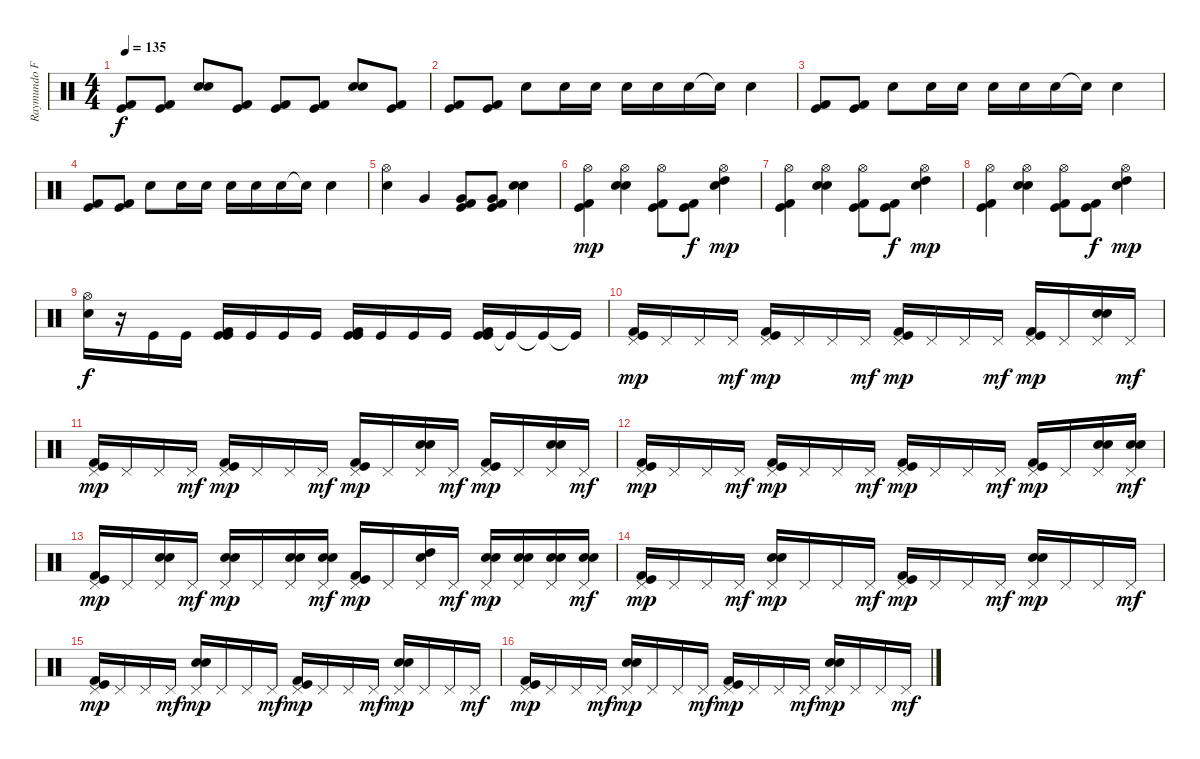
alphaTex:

\track ("Raymundo Fajardo" "Raymundo F") {instrument percussion}
\staff {score}
\articulation defaults
\ts (4 4)
\tempo 135
\clef neutral
\ks c
("Kick (hit) 2" "Kick (hit)").8{dy f} ("Kick (hit) 2" "Kick (hit)").8 ("Electric Snare (hit)" "Snare (hit) 2").8 ("Kick (hit) 2" "Kick (hit)").8 ("Kick (hit) 2" "Kick (hit)").8 ("Kick (hit) 2" "Kick (hit)").8 ("Electric Snare (hit)" "Snare (hit) 2").8 ("Kick (hit) 2" "Kick (hit)").8 |
("Kick (hit)" "Kick (hit) 2").8 ("Kick (hit)" "Kick (hit) 2").8 "Electric Snare (hit)".8 "Electric Snare (hit)".16 "Electric Snare (hit)".16 "Electric Snare (hit)".16 "Electric Snare (hit)".16 "Electric Snare (hit)".16 "Electric Snare (hit)"{t}.16 "Electric Snare (hit)".4 |
("Kick (hit)" "Kick (hit) 2").8 ("Kick (hit)" "Kick (hit) 2").8 "Electric Snare (hit)".8 "Electric Snare (hit)".16 "Electric Snare (hit)".16 "Electric Snare (hit)".16 "Electric Snare (hit)".16 "Electric Snare (hit)".16 "Electric Snare (hit)"{t}.16 "Electric Snare (hit)".4 |
("Kick (hit)" "Kick (hit) 2").8 ("Kick (hit)" "Kick (hit) 2").8 "Electric Snare (hit)".8 "Electric Snare (hit)".16 "Electric Snare (hit)".16 "Electric Snare (hit)".16 "Electric Snare (hit)".16 "Electric Snare (hit)".16 "Electric Snare (hit)"{t}.16 "Electric Snare (hit)".4 |
("Electric Snare (hit)" "Hi-Hat (open)").4 "Very Low Tom (hit)".4 ("Very Low Tom (hit)" "Kick (hit)" "Kick (hit) 2").8 ("Very Low Tom (hit)" "Kick (hit)" "Kick (hit) 2").8 ("Electric Snare (hit)" "Snare (hit) 2").4 |
("Kick (hit)" "Kick (hit) 2" "Hi-Hat (open)").4{dy mp} ("Electric Snare (hit)" "Snare (hit) 2" "Hi-Hat (open)").4 ("Kick (hit) 2" "Kick (hit)" "Hi-Hat (open)").8 ("Kick (hit) 2" "Kick (hit)").8{dy f} ("Electric Snare (hit)" "High Tom (hit)" "Hi-Hat (open)").4{dy mp} |
("Kick (hit)" "Kick (hit) 2" "Hi-Hat (open)").4 ("Electric Snare (hit)" "Snare (hit) 2" "Hi-Hat (open)").4 ("Kick (hit) 2" "Kick (hit)" "Hi-Hat (open)").8 ("Kick (hit) 2" "Kick (hit)").8{dy f} ("Electric Snare (hit)" "High Tom (hit)" "Hi-Hat (open)").4{dy mp} |
("Kick (hit)" "Kick (hit) 2" "Hi-Hat (open)").4 ("Electric Snare (hit)" "Snare (hit) 2" "Hi-Hat (open)").4 ("Kick (hit) 2" "Kick (hit)" "Hi-Hat (open)").8 ("Kick (hit) 2" "Kick (hit)").8{dy f} ("Electric Snare (hit)" "High Tom (hit)" "Hi-Hat (open)").4{dy mp} |
("Hi-Hat (open)" "Electric Snare (hit)").16{dy f} r.16 "Kick (hit)".16 "Kick (hit)".16 ("Kick (hit)" "Kick (hit) 2" "Kick (hit)").16 "Kick (hit)".16 "Kick (hit)".16 "Kick (hit)".16 ("Kick (hit)" "Kick (hit) 2" "Kick (hit)").16 "Kick (hit)".16 "Kick (hit)".16 "Kick (hit)".16 ("Kick (hit)" "Kick (hit) 2" "Kick (hit)").16 "Kick (hit)"{t}.16 "Kick (hit)"{t}.16 "Kick (hit)"{t}.16 |
("Kick (hit) 2" "Kick (hit)" "Pedal Hi-Hat (hit)").16{dy mp} "Pedal Hi-Hat (hit)".16 "Pedal Hi-Hat (hit)".16 "Pedal Hi-Hat (hit)".16{dy mf} ("Kick (hit) 2" "Kick (hit)" "Pedal Hi-Hat (hit)").16{dy mp} "Pedal Hi-Hat (hit)".16 "Pedal Hi-Hat (hit)".16 "Pedal Hi-Hat (hit)".16{dy mf} ("Kick (hit) 2" "Kick (hit)" "Pedal Hi-Hat (hit)").16{dy mp} "Pedal Hi-Hat (hit)".16 "Pedal Hi-Hat (hit)".16 "Pedal Hi-Hat (hit)".16{dy mf} ("Kick (hit) 2" "Kick (hit)" "Pedal Hi-Hat (hit)").16{dy mp} "Pedal Hi-Hat (hit)".16 ("Electric Snare (hit)" "Snare (hit) 2" "Pedal Hi-Hat (hit)").16 "Pedal Hi-Hat (hit)".16{dy mf} |
("Kick (hit) 2" "Kick (hit)" "Pedal Hi-Hat (hit)").16{dy mp} "Pedal Hi-Hat (hit)".16 "Pedal Hi-Hat (hit)".16 "Pedal Hi-Hat (hit)".16{dy mf} ("Kick (hit) 2" "Kick (hit)" "Pedal Hi-Hat (hit)").16{dy mp} "Pedal Hi-Hat (hit)".16 "Pedal Hi-Hat (hit)".16 "Pedal Hi-Hat (hit)".16{dy mf} ("Kick (hit) 2" "Kick (hit)" "Pedal Hi-Hat (hit)").16{dy mp} "Pedal Hi-Hat (hit)".16 ("Electric Snare (hit)" "Snare (hit) 2" "Pedal Hi-Hat (hit)").16 "Pedal Hi-Hat (hit)".16{dy mf} ("Kick (hit) 2" "Kick (hit)" "Pedal Hi-Hat (hit)").16{dy mp} "Pedal Hi-Hat (hit)".16 ("Electric Snare (hit)" "Snare (hit) 2" "Pedal Hi-Hat (hit)").16 "Pedal Hi-Hat (hit)".16{dy mf} |
("Kick (hit) 2" "Kick (hit)" "Pedal Hi-Hat (hit)").16{dy mp} "Pedal Hi-Hat (hit)".16 "Pedal Hi-Hat (hit)".16 "Pedal Hi-Hat (hit)".16{dy mf} ("Kick (hit) 2" "Kick (hit)" "Pedal Hi-Hat (hit)").16{dy mp} "Pedal Hi-Hat (hit)".16 "Pedal Hi-Hat (hit)".16 "Pedal Hi-Hat (hit)".16{dy mf} ("Kick (hit) 2" "Kick (hit)" "Pedal Hi-Hat (hit)").16{dy mp} "Pedal Hi-Hat (hit)".16 "Pedal Hi-Hat (hit)".16 "Pedal Hi-Hat (hit)".16{dy mf} ("Kick (hit) 2" "Kick (hit)" "Pedal Hi-Hat (hit)").16{dy mp} "Pedal Hi-Hat (hit)".16 ("Electric Snare (hit)" "Snare (hit) 2" "Pedal Hi-Hat (hit)").16 ("Electric Snare (hit)" "Snare (hit) 2" "Pedal Hi-Hat (hit)").16{dy mf} |
("Kick (hit) 2" "Kick (hit)" "Pedal Hi-Hat (hit)").16{dy mp} "Pedal Hi-Hat (hit)".16 ("Electric Snare (hit)" "Snare (hit) 2" "Pedal Hi-Hat (hit)").16 "Pedal Hi-Hat (hit)".16{dy mf} ("Electric Snare (hit)" "Snare (hit) 2" "Pedal Hi-Hat (hit)").16{dy mp} "Pedal Hi-Hat (hit)".16 ("Electric Snare (hit)" "Snare (hit) 2" "Pedal Hi-Hat (hit)").16 ("Electric Snare (hit)" "Snare (hit) 2" "Pedal Hi-Hat (hit)").16{dy mf} ("Kick (hit) 2" "Kick (hit)" "Pedal Hi-Hat (hit)").16{dy mp} "Pedal Hi-Hat (hit)".16 ("Electric Snare (hit)" "High Tom (hit)" "Pedal Hi-Hat (hit)").16 "Pedal Hi-Hat (hit)".16{dy mf} ("Snare (hit) 2" "Electric Snare (hit)" "Pedal Hi-Hat (hit)").16{dy mp} ("Snare (hit) 2" "Electric Snare (hit)" "Pedal Hi-Hat (hit)").16 ("Snare (hit) 2" "Electric Snare (hit)" "Pedal Hi-Hat (hit)").16 ("Snare (hit) 2" "Electric Snare (hit)" "Pedal Hi-Hat (hit)").16{dy mf} |
("Kick (hit) 2" "Kick (hit)" "Pedal Hi-Hat (hit)").16{dy mp} "Pedal Hi-Hat (hit)".16 "Pedal Hi-Hat (hit)".16 "Pedal Hi-Hat (hit)".16{dy mf} ("Electric Snare (hit)" "Snare (hit) 2" "Pedal Hi-Hat (hit)").16{dy mp} "Pedal Hi-Hat (hit)".16 "Pedal Hi-Hat (hit)".16 "Pedal Hi-Hat (hit)".16{dy mf} ("Kick (hit) 2" "Kick (hit)" "Pedal Hi-Hat (hit)").16{dy mp} "Pedal Hi-Hat (hit)".16 "Pedal Hi-Hat (hit)".16 "Pedal Hi-Hat (hit)".16{dy mf} ("Electric Snare (hit)" "Snare (hit) 2" "Pedal Hi-Hat (hit)").16{dy mp} "Pedal Hi-Hat (hit)".16 "Pedal Hi-Hat (hit)".16 "Pedal Hi-Hat (hit)".16{dy mf} |
("Kick (hit) 2" "Kick (hit)" "Pedal Hi-Hat (hit)").16{dy mp} "Pedal Hi-Hat (hit)".16 "Pedal Hi-Hat (hit)".16 "Pedal Hi-Hat (hit)".16{dy mf} ("Electric Snare (hit)" "Snare (hit) 2" "Pedal Hi-Hat (hit)").16{dy mp} "Pedal Hi-Hat (hit)".16 "Pedal Hi-Hat (hit)".16 "Pedal Hi-Hat (hit)".16{dy mf} ("Kick (hit) 2" "Kick (hit)" "Pedal Hi-Hat (hit)").16{dy mp} "Pedal Hi-Hat (hit)".16 "Pedal Hi-Hat (hit)".16 "Pedal Hi-Hat (hit)".16{dy mf} ("Electric Snare (hit)" "Snare (hit) 2" "Pedal Hi-Hat (hit)").16{dy mp} "Pedal Hi-Hat (hit)".16 "Pedal Hi-Hat (hit)".16 "Pedal Hi-Hat (hit)".16{dy mf} |
("Kick (hit) 2" "Kick (hit)" "Pedal Hi-Hat (hit)").16{dy mp} "Pedal Hi-Hat (hit)".16 "Pedal Hi-Hat (hit)".16 "Pedal Hi-Hat (hit)".16{dy mf} ("Electric Snare (hit)" "Snare (hit) 2" "Pedal Hi-Hat (hit)").16{dy mp} "Pedal Hi-Hat (hit)".16 "Pedal Hi-Hat (hit)".16 "Pedal Hi-Hat (hit)".16{dy mf} ("Kick (hit) 2" "Kick (hit)" "Pedal Hi-Hat (hit)").16{dy mp} "Pedal Hi-Hat (hit)".16 "Pedal Hi-Hat (hit)".16 "Pedal Hi-Hat (hit)".16{dy mf} ("Electric Snare (hit)" "Snare (hit) 2" "Pedal Hi-Hat (hit)").16{dy mp} "Pedal Hi-Hat (hit)".16 "Pedal Hi-Hat (hit)".16 "Pedal Hi-Hat (hit)".16{dy mf}
